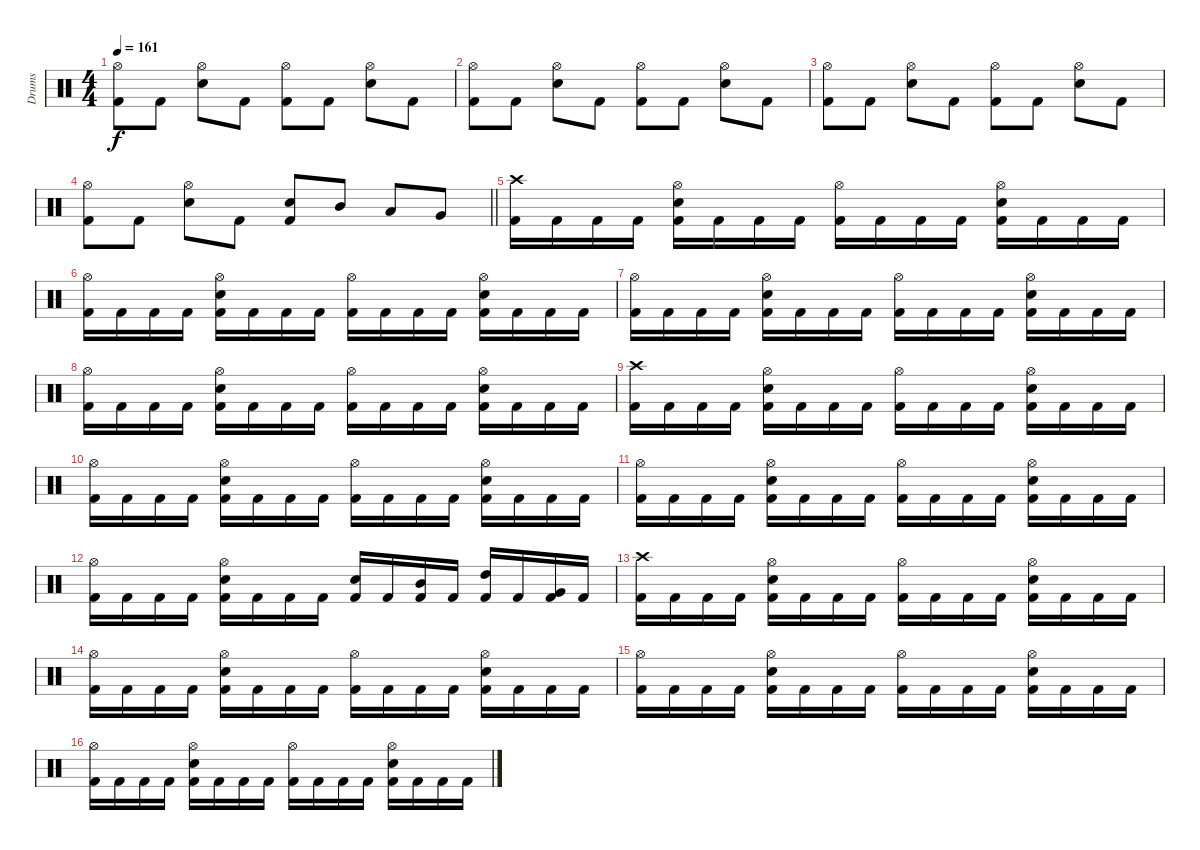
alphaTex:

\track ("Drums" "Drums") {instrument percussion}
\staff {score}
\articulation defaults
\ts (4 4)
\tempo 161
\clef neutral
\ks c
("Hi-Hat (open)" "Kick (hit) 2").8{dy f} "Kick (hit) 2".8 ("Hi-Hat (open)" "Snare (hit) 2").8 "Kick (hit) 2".8 ("Hi-Hat (open)" "Kick (hit) 2").8 "Kick (hit) 2".8 ("Hi-Hat (open)" "Snare (hit) 2").8 "Kick (hit) 2".8 |
("Hi-Hat (open)" "Kick (hit) 2").8 "Kick (hit) 2".8 ("Hi-Hat (open)" "Snare (hit) 2").8 "Kick (hit) 2".8 ("Hi-Hat (open)" "Kick (hit) 2").8 "Kick (hit) 2".8 ("Hi-Hat (open)" "Snare (hit) 2").8 "Kick (hit) 2".8 |
("Hi-Hat (open)" "Kick (hit) 2").8 "Kick (hit) 2".8 ("Hi-Hat (open)" "Snare (hit) 2").8 "Kick (hit) 2".8 ("Hi-Hat (open)" "Kick (hit) 2").8 "Kick (hit) 2".8 ("Hi-Hat (open)" "Snare (hit) 2").8 "Kick (hit) 2".8 |
\barLineRight lightlight
("Hi-Hat (open)" "Kick (hit) 2").8 "Kick (hit) 2".8 ("Hi-Hat (open)" "Snare (hit) 2").8 "Kick (hit) 2".8 ("Snare (hit) 2" "Kick (hit) 2").8 "Mid Tom (hit)".8 "Low Tom (hit)".8 "Very Low Tom (hit)".8 |
("Crash high (hit)" "Kick (hit) 2").16 "Kick (hit) 2".16 "Kick (hit) 2".16 "Kick (hit) 2".16 ("Hi-Hat (open)" "Snare (hit) 2" "Kick (hit) 2").16 "Kick (hit) 2".16 "Kick (hit) 2".16 "Kick (hit) 2".16 ("Hi-Hat (open)" "Kick (hit) 2").16 "Kick (hit) 2".16 "Kick (hit) 2".16 "Kick (hit) 2".16 ("Hi-Hat (open)" "Snare (hit) 2" "Kick (hit) 2").16 "Kick (hit) 2".16 "Kick (hit) 2".16 "Kick (hit) 2".16 |
("Hi-Hat (open)" "Kick (hit) 2").16 "Kick (hit) 2".16 "Kick (hit) 2".16 "Kick (hit) 2".16 ("Hi-Hat (open)" "Snare (hit) 2" "Kick (hit) 2").16 "Kick (hit) 2".16 "Kick (hit) 2".16 "Kick (hit) 2".16 ("Hi-Hat (open)" "Kick (hit) 2").16 "Kick (hit) 2".16 "Kick (hit) 2".16 "Kick (hit) 2".16 ("Hi-Hat (open)" "Snare (hit) 2" "Kick (hit) 2").16 "Kick (hit) 2".16 "Kick (hit) 2".16 "Kick (hit) 2".16 |
("Hi-Hat (open)" "Kick (hit) 2").16 "Kick (hit) 2".16 "Kick (hit) 2".16 "Kick (hit) 2".16 ("Hi-Hat (open)" "Snare (hit) 2" "Kick (hit) 2").16 "Kick (hit) 2".16 "Kick (hit) 2".16 "Kick (hit) 2".16 ("Hi-Hat (open)" "Kick (hit) 2").16 "Kick (hit) 2".16 "Kick (hit) 2".16 "Kick (hit) 2".16 ("Hi-Hat (open)" "Snare (hit) 2" "Kick (hit) 2").16 "Kick (hit) 2".16 "Kick (hit) 2".16 "Kick (hit) 2".16 |
("Hi-Hat (open)" "Kick (hit) 2").16 "Kick (hit) 2".16 "Kick (hit) 2".16 "Kick (hit) 2".16 ("Hi-Hat (open)" "Snare (hit) 2" "Kick (hit) 2").16 "Kick (hit) 2".16 "Kick (hit) 2".16 "Kick (hit) 2".16 ("Hi-Hat (open)" "Kick (hit) 2").16 "Kick (hit) 2".16 "Kick (hit) 2".16 "Kick (hit) 2".16 ("Hi-Hat (open)" "Snare (hit) 2" "Kick (hit) 2").16 "Kick (hit) 2".16 "Kick (hit) 2".16 "Kick (hit) 2".16 |
("Crash high (hit)" "Kick (hit) 2").16 "Kick (hit) 2".16 "Kick (hit) 2".16 "Kick (hit) 2".16 ("Hi-Hat (open)" "Snare (hit) 2" "Kick (hit) 2").16 "Kick (hit) 2".16 "Kick (hit) 2".16 "Kick (hit) 2".16 ("Hi-Hat (open)" "Kick (hit) 2").16 "Kick (hit) 2".16 "Kick (hit) 2".16 "Kick (hit) 2".16 ("Hi-Hat (open)" "Snare (hit) 2" "Kick (hit) 2").16 "Kick (hit) 2".16 "Kick (hit) 2".16 "Kick (hit) 2".16 |
("Hi-Hat (open)" "Kick (hit) 2").16 "Kick (hit) 2".16 "Kick (hit) 2".16 "Kick (hit) 2".16 ("Hi-Hat (open)" "Snare (hit) 2" "Kick (hit) 2").16 "Kick (hit) 2".16 "Kick (hit) 2".16 "Kick (hit) 2".16 ("Hi-Hat (open)" "Kick (hit) 2").16 "Kick (hit) 2".16 "Kick (hit) 2".16 "Kick (hit) 2".16 ("Hi-Hat (open)" "Snare (hit) 2" "Kick (hit) 2").16 "Kick (hit) 2".16 "Kick (hit) 2".16 "Kick (hit) 2".16 |
("Hi-Hat (open)" "Kick (hit) 2").16 "Kick (hit) 2".16 "Kick (hit) 2".16 "Kick (hit) 2".16 ("Hi-Hat (open)" "Snare (hit) 2" "Kick (hit) 2").16 "Kick (hit) 2".16 "Kick (hit) 2".16 "Kick (hit) 2".16 ("Hi-Hat (open)" "Kick (hit) 2").16 "Kick (hit) 2".16 "Kick (hit) 2".16 "Kick (hit) 2".16 ("Hi-Hat (open)" "Snare (hit) 2" "Kick (hit) 2").16 "Kick (hit) 2".16 "Kick (hit) 2".16 "Kick (hit) 2".16 |
("Hi-Hat (open)" "Kick (hit) 2").16 "Kick (hit) 2".16 "Kick (hit) 2".16 "Kick (hit) 2".16 ("Hi-Hat (open)" "Snare (hit) 2" "Kick (hit) 2").16 "Kick (hit) 2".16 "Kick (hit) 2".16 "Kick (hit) 2".16 ("Snare (hit) 2" "Kick (hit) 2").16 "Kick (hit) 2".16 ("Mid Tom (hit)" "Kick (hit) 2").16 "Kick (hit) 2".16 ("High Tom (hit)" "Kick (hit) 2").16 "Kick (hit) 2".16 ("Very Low Tom (hit)" "Kick (hit) 2").16 "Kick (hit) 2".16 |
("Crash high (hit)" "Kick (hit) 2").16 "Kick (hit) 2".16 "Kick (hit) 2".16 "Kick (hit) 2".16 ("Hi-Hat (open)" "Snare (hit) 2" "Kick (hit) 2").16 "Kick (hit) 2".16 "Kick (hit) 2".16 "Kick (hit) 2".16 ("Hi-Hat (open)" "Kick (hit) 2").16 "Kick (hit) 2".16 "Kick (hit) 2".16 "Kick (hit) 2".16 ("Hi-Hat (open)" "Snare (hit) 2" "Kick (hit) 2").16 "Kick (hit) 2".16 "Kick (hit) 2".16 "Kick (hit) 2".16 |
("Hi-Hat (open)" "Kick (hit) 2").16 "Kick (hit) 2".16 "Kick (hit) 2".16 "Kick (hit) 2".16 ("Hi-Hat (open)" "Snare (hit) 2" "Kick (hit) 2").16 "Kick (hit) 2".16 "Kick (hit) 2".16 "Kick (hit) 2".16 ("Hi-Hat (open)" "Kick (hit) 2").16 "Kick (hit) 2".16 "Kick (hit) 2".16 "Kick (hit) 2".16 ("Hi-Hat (open)" "Snare (hit) 2" "Kick (hit) 2").16 "Kick (hit) 2".16 "Kick (hit) 2".16 "Kick (hit) 2".16 |
("Hi-Hat (open)" "Kick (hit) 2").16 "Kick (hit) 2".16 "Kick (hit) 2".16 "Kick (hit) 2".16 ("Hi-Hat (open)" "Snare (hit) 2" "Kick (hit) 2").16 "Kick (hit) 2".16 "Kick (hit) 2".16 "Kick (hit) 2".16 ("Hi-Hat (open)" "Kick (hit) 2").16 "Kick (hit) 2".16 "Kick (hit) 2".16 "Kick (hit) 2".16 ("Hi-Hat (open)" "Snare (hit) 2" "Kick (hit) 2").16 "Kick (hit) 2".16 "Kick (hit) 2".16 "Kick (hit) 2".16 |
("Hi-Hat (open)" "Kick (hit) 2").16 "Kick (hit) 2".16 "Kick (hit) 2".16 "Kick (hit) 2".16 ("Hi-Hat (open)" "Snare (hit) 2" "Kick (hit) 2").16 "Kick (hit) 2".16 "Kick (hit) 2".16 "Kick (hit) 2".16 ("Hi-Hat (open)" "Kick (hit) 2").16 "Kick (hit) 2".16 "Kick (hit) 2".16 "Kick (hit) 2".16 ("Hi-Hat (open)" "Snare (hit) 2" "Kick (hit) 2").16 "Kick (hit) 2".16 "Kick (hit) 2".16 "Kick (hit) 2".16
